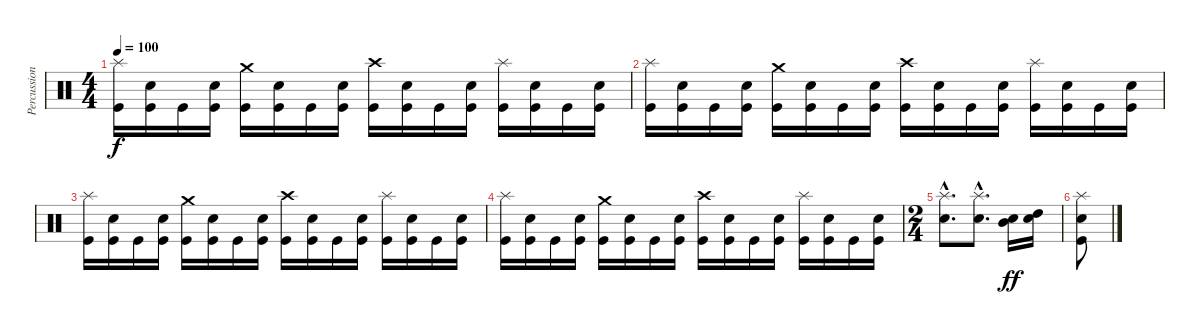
\track ("Percussioni" "Percussion") {instrument percussion}
\staff {score}
\articulation defaults
\ts (4 4)
\tempo 100
\clef neutral
\ks c
("Splash (hit)" "Kick (hit)").16{dy f} ("Snare (hit) 2" "Kick (hit)").16 "Kick (hit)".16 ("Snare (hit) 2" "Kick (hit)").16 ("Crash medium (hit)" "Kick (hit)").16 ("Snare (hit) 2" "Kick (hit)").16 "Kick (hit)".16 ("Snare (hit) 2" "Kick (hit)").16 ("Crash high (hit)" "Kick (hit)").16 ("Snare (hit) 2" "Kick (hit)").16 "Kick (hit)".16 ("Snare (hit) 2" "Kick (hit)").16 ("Splash (hit)" "Kick (hit)").16 ("Snare (hit) 2" "Kick (hit)").16 "Kick (hit)".16 ("Snare (hit) 2" "Kick (hit)").16 |
("Splash (hit)" "Kick (hit)").16 ("Snare (hit) 2" "Kick (hit)").16 "Kick (hit)".16 ("Snare (hit) 2" "Kick (hit)").16 ("Crash medium (hit)" "Kick (hit)").16 ("Snare (hit) 2" "Kick (hit)").16 "Kick (hit)".16 ("Snare (hit) 2" "Kick (hit)").16 ("Crash high (hit)" "Kick (hit)").16 ("Snare (hit) 2" "Kick (hit)").16 "Kick (hit)".16 ("Snare (hit) 2" "Kick (hit)").16 ("Splash (hit)" "Kick (hit)").16 ("Snare (hit) 2" "Kick (hit)").16 "Kick (hit)".16 ("Snare (hit) 2" "Kick (hit)").16 |
("Splash (hit)" "Kick (hit)").16 ("Snare (hit) 2" "Kick (hit)").16 "Kick (hit)".16 ("Snare (hit) 2" "Kick (hit)").16 ("Crash medium (hit)" "Kick (hit)").16 ("Snare (hit) 2" "Kick (hit)").16 "Kick (hit)".16 ("Snare (hit) 2" "Kick (hit)").16 ("Crash high (hit)" "Kick (hit)").16 ("Snare (hit) 2" "Kick (hit)").16 "Kick (hit)".16 ("Snare (hit) 2" "Kick (hit)").16 ("Splash (hit)" "Kick (hit)").16 ("Snare (hit) 2" "Kick (hit)").16 "Kick (hit)".16 ("Snare (hit) 2" "Kick (hit)").16 |
("Splash (hit)" "Kick (hit)").16 ("Snare (hit) 2" "Kick (hit)").16 "Kick (hit)".16 ("Snare (hit) 2" "Kick (hit)").16 ("Crash medium (hit)" "Kick (hit)").16 ("Snare (hit) 2" "Kick (hit)").16 "Kick (hit)".16 ("Snare (hit) 2" "Kick (hit)").16 ("Crash high (hit)" "Kick (hit)").16 ("Snare (hit) 2" "Kick (hit)").16 "Kick (hit)".16 ("Snare (hit) 2" "Kick (hit)").16 ("Splash (hit)" "Kick (hit)").16 ("Snare (hit) 2" "Kick (hit)").16 "Kick (hit)".16 ("Snare (hit) 2" "Kick (hit)").16 |
\ts (2 4)
("Splash (hit)"{hac} "Snare (hit) 2"{hac}).8{d} ("Splash (hit)"{hac} "Snare (hit) 2"{hac}).8{d} ("Mid Tom (hit)" "Snare (hit) 2").16{dy ff} ("High Tom (hit)" "Snare (hit) 2").16 |
("Splash (hit)" "Snare (hit) 2" "Kick (hit)").8
